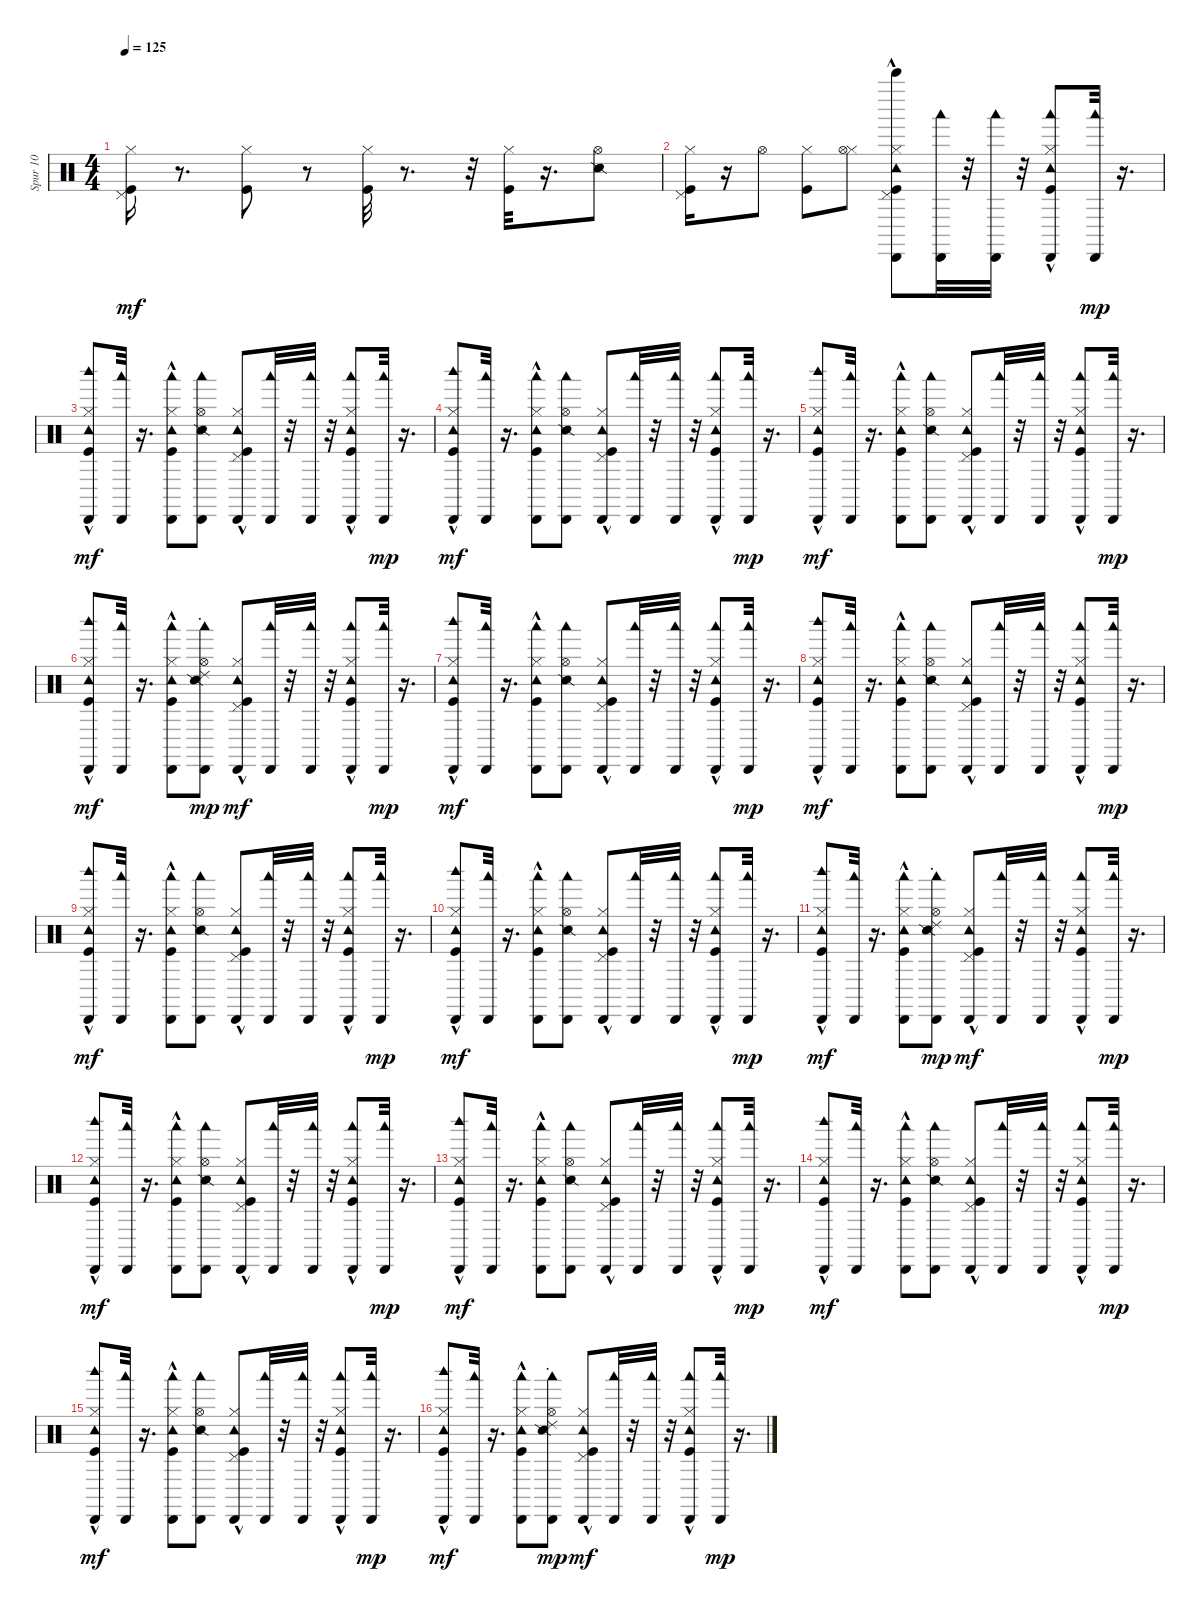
\track ("Spur 10" "Spur 10") {instrument percussion}
\staff {score}
\articulation defaults
\ts (4 4)
\tempo 125
\clef neutral
\ks c
("Pedal Hi-Hat (hit)" "Kick (hit)" "Hi-Hat (closed)").16{dy mf} r.8{d} ("Hi-Hat (closed)" "Kick (hit)").8 r.8 ("Hi-Hat (closed)" "Kick (hit)").32 r.8{d} r.32 ("Hi-Hat (closed)" "Kick (hit)").32 r.16{d} ("Hi-Hat (open)" "Snare (side stick) 2").8 |
("Pedal Hi-Hat (hit)" "Kick (hit)" "Hi-Hat (closed)").16 r.16 "Hi-Hat (open)".8 ("Hi-Hat (closed)" "Kick (hit)").8 ("Hi-Hat (closed)" "Hi-Hat (open)").8 ("Cabasa (hit)" "Tambourine (hit)"{hac} "Bell Tree (hit)"{hac} "Pedal Hi-Hat (hit)" "Kick (hit)" "Hi-Hat (closed)").8 ("Woodblock low (hit)" "Cabasa (hit)").32 r.32 ("Woodblock low (hit)" "Cabasa (hit)").32 r.32 ("Woodblock low (hit)" "Cabasa (hit)" "Tambourine (hit)"{hac} "Hi-Hat (closed)" "Kick (hit)").8 ("Woodblock low (hit)" "Cabasa (hit)").32{dy mp} r.16{d} |
("Woodblock high (hit)" "Cabasa (hit)" "Tambourine (hit)"{hac} "Hi-Hat (closed)" "Kick (hit)").8{dy mf} ("Woodblock low (hit)" "Cabasa (hit)").32 r.16{d} ("Woodblock low (hit)" "Cabasa (hit)" "Tambourine (hit)"{hac} "Hi-Hat (closed)" "Kick (hit)").8 ("Woodblock low (hit)" "Cabasa (hit)" "Hi-Hat (open)" "Snare (side stick) 2").8 ("Cabasa (hit)" "Tambourine (hit)"{hac} "Pedal Hi-Hat (hit)" "Kick (hit)" "Hi-Hat (closed)").8 ("Woodblock low (hit)" "Cabasa (hit)").32 r.32 ("Woodblock low (hit)" "Cabasa (hit)").32 r.32 ("Woodblock low (hit)" "Cabasa (hit)" "Tambourine (hit)"{hac} "Hi-Hat (closed)" "Kick (hit)").8 ("Woodblock low (hit)" "Cabasa (hit)").32{dy mp} r.16{d} |
("Woodblock high (hit)" "Cabasa (hit)" "Tambourine (hit)"{hac} "Hi-Hat (closed)" "Kick (hit)").8{dy mf} ("Woodblock low (hit)" "Cabasa (hit)").32 r.16{d} ("Woodblock low (hit)" "Cabasa (hit)" "Tambourine (hit)"{hac} "Hi-Hat (closed)" "Kick (hit)").8 ("Woodblock low (hit)" "Cabasa (hit)" "Hi-Hat (open)" "Snare (side stick) 2").8 ("Cabasa (hit)" "Tambourine (hit)"{hac} "Pedal Hi-Hat (hit)" "Kick (hit)" "Hi-Hat (closed)").8 ("Woodblock low (hit)" "Cabasa (hit)").32 r.32 ("Woodblock low (hit)" "Cabasa (hit)").32 r.32 ("Woodblock low (hit)" "Cabasa (hit)" "Tambourine (hit)"{hac} "Hi-Hat (closed)" "Kick (hit)").8 ("Woodblock low (hit)" "Cabasa (hit)").32{dy mp} r.16{d} |
("Woodblock high (hit)" "Cabasa (hit)" "Tambourine (hit)"{hac} "Hi-Hat (closed)" "Kick (hit)").8{dy mf} ("Woodblock low (hit)" "Cabasa (hit)").32 r.16{d} ("Woodblock low (hit)" "Cabasa (hit)" "Tambourine (hit)"{hac} "Hi-Hat (closed)" "Kick (hit)").8 ("Woodblock low (hit)" "Cabasa (hit)" "Hi-Hat (open)" "Snare (side stick) 2").8 ("Cabasa (hit)" "Tambourine (hit)"{hac} "Pedal Hi-Hat (hit)" "Kick (hit)" "Hi-Hat (closed)").8 ("Woodblock low (hit)" "Cabasa (hit)").32 r.32 ("Woodblock low (hit)" "Cabasa (hit)").32 r.32 ("Woodblock low (hit)" "Cabasa (hit)" "Tambourine (hit)"{hac} "Hi-Hat (closed)" "Kick (hit)").8 ("Woodblock low (hit)" "Cabasa (hit)").32{dy mp} r.16{d} |
("Woodblock high (hit)" "Cabasa (hit)" "Tambourine (hit)"{hac} "Hi-Hat (closed)" "Kick (hit)").8{dy mf} ("Woodblock low (hit)" "Cabasa (hit)").32 r.16{d} ("Woodblock low (hit)" "Cabasa (hit)" "Tambourine (hit)"{hac} "Hi-Hat (closed)" "Kick (hit)").8 ("Woodblock low (hit)" "Cabasa (hit)" "Hi-Hat (open)" "Snare (side stick) 2" "Ride (choke) 2").8{dy mp} ("Cabasa (hit)" "Tambourine (hit)"{hac} "Pedal Hi-Hat (hit)" "Kick (hit)" "Hi-Hat (closed)").8{dy mf} ("Woodblock low (hit)" "Cabasa (hit)").32 r.32 ("Woodblock low (hit)" "Cabasa (hit)").32 r.32 ("Woodblock low (hit)" "Cabasa (hit)" "Tambourine (hit)"{hac} "Hi-Hat (closed)" "Kick (hit)").8 ("Woodblock low (hit)" "Cabasa (hit)").32{dy mp} r.16{d} |
("Woodblock high (hit)" "Cabasa (hit)" "Tambourine (hit)"{hac} "Hi-Hat (closed)" "Kick (hit)").8{dy mf} ("Woodblock low (hit)" "Cabasa (hit)").32 r.16{d} ("Woodblock low (hit)" "Cabasa (hit)" "Tambourine (hit)"{hac} "Hi-Hat (closed)" "Kick (hit)").8 ("Woodblock low (hit)" "Cabasa (hit)" "Hi-Hat (open)" "Snare (side stick) 2").8 ("Cabasa (hit)" "Tambourine (hit)"{hac} "Pedal Hi-Hat (hit)" "Kick (hit)" "Hi-Hat (closed)").8 ("Woodblock low (hit)" "Cabasa (hit)").32 r.32 ("Woodblock low (hit)" "Cabasa (hit)").32 r.32 ("Woodblock low (hit)" "Cabasa (hit)" "Tambourine (hit)"{hac} "Hi-Hat (closed)" "Kick (hit)").8 ("Woodblock low (hit)" "Cabasa (hit)").32{dy mp} r.16{d} |
("Woodblock high (hit)" "Cabasa (hit)" "Tambourine (hit)"{hac} "Hi-Hat (closed)" "Kick (hit)").8{dy mf} ("Woodblock low (hit)" "Cabasa (hit)").32 r.16{d} ("Woodblock low (hit)" "Cabasa (hit)" "Tambourine (hit)"{hac} "Hi-Hat (closed)" "Kick (hit)").8 ("Woodblock low (hit)" "Cabasa (hit)" "Hi-Hat (open)" "Snare (side stick) 2").8 ("Cabasa (hit)" "Tambourine (hit)"{hac} "Pedal Hi-Hat (hit)" "Kick (hit)" "Hi-Hat (closed)").8 ("Woodblock low (hit)" "Cabasa (hit)").32 r.32 ("Woodblock low (hit)" "Cabasa (hit)").32 r.32 ("Woodblock low (hit)" "Cabasa (hit)" "Tambourine (hit)"{hac} "Hi-Hat (closed)" "Kick (hit)").8 ("Woodblock low (hit)" "Cabasa (hit)").32{dy mp} r.16{d} |
("Woodblock high (hit)" "Cabasa (hit)" "Tambourine (hit)"{hac} "Hi-Hat (closed)" "Kick (hit)").8{dy mf} ("Woodblock low (hit)" "Cabasa (hit)").32 r.16{d} ("Woodblock low (hit)" "Cabasa (hit)" "Tambourine (hit)"{hac} "Hi-Hat (closed)" "Kick (hit)").8 ("Woodblock low (hit)" "Cabasa (hit)" "Hi-Hat (open)" "Snare (side stick) 2").8 ("Cabasa (hit)" "Tambourine (hit)"{hac} "Pedal Hi-Hat (hit)" "Kick (hit)" "Hi-Hat (closed)").8 ("Woodblock low (hit)" "Cabasa (hit)").32 r.32 ("Woodblock low (hit)" "Cabasa (hit)").32 r.32 ("Woodblock low (hit)" "Cabasa (hit)" "Tambourine (hit)"{hac} "Hi-Hat (closed)" "Kick (hit)").8 ("Woodblock low (hit)" "Cabasa (hit)").32{dy mp} r.16{d} |
("Woodblock high (hit)" "Cabasa (hit)" "Tambourine (hit)"{hac} "Hi-Hat (closed)" "Kick (hit)").8{dy mf} ("Woodblock low (hit)" "Cabasa (hit)").32 r.16{d} ("Woodblock low (hit)" "Cabasa (hit)" "Tambourine (hit)"{hac} "Hi-Hat (closed)" "Kick (hit)").8 ("Woodblock low (hit)" "Cabasa (hit)" "Hi-Hat (open)" "Snare (side stick) 2").8 ("Cabasa (hit)" "Tambourine (hit)"{hac} "Pedal Hi-Hat (hit)" "Kick (hit)" "Hi-Hat (closed)").8 ("Woodblock low (hit)" "Cabasa (hit)").32 r.32 ("Woodblock low (hit)" "Cabasa (hit)").32 r.32 ("Woodblock low (hit)" "Cabasa (hit)" "Tambourine (hit)"{hac} "Hi-Hat (closed)" "Kick (hit)").8 ("Woodblock low (hit)" "Cabasa (hit)").32{dy mp} r.16{d} |
("Woodblock high (hit)" "Cabasa (hit)" "Tambourine (hit)"{hac} "Hi-Hat (closed)" "Kick (hit)").8{dy mf} ("Woodblock low (hit)" "Cabasa (hit)").32 r.16{d} ("Woodblock low (hit)" "Cabasa (hit)" "Tambourine (hit)"{hac} "Hi-Hat (closed)" "Kick (hit)").8 ("Woodblock low (hit)" "Cabasa (hit)" "Hi-Hat (open)" "Snare (side stick) 2" "Ride (choke) 2").8{dy mp} ("Cabasa (hit)" "Tambourine (hit)"{hac} "Pedal Hi-Hat (hit)" "Kick (hit)" "Hi-Hat (closed)").8{dy mf} ("Woodblock low (hit)" "Cabasa (hit)").32 r.32 ("Woodblock low (hit)" "Cabasa (hit)").32 r.32 ("Woodblock low (hit)" "Cabasa (hit)" "Tambourine (hit)"{hac} "Hi-Hat (closed)" "Kick (hit)").8 ("Woodblock low (hit)" "Cabasa (hit)").32{dy mp} r.16{d} |
("Woodblock high (hit)" "Cabasa (hit)" "Tambourine (hit)"{hac} "Hi-Hat (closed)" "Kick (hit)").8{dy mf} ("Woodblock low (hit)" "Cabasa (hit)").32 r.16{d} ("Woodblock low (hit)" "Cabasa (hit)" "Tambourine (hit)"{hac} "Hi-Hat (closed)" "Kick (hit)").8 ("Woodblock low (hit)" "Cabasa (hit)" "Hi-Hat (open)" "Snare (side stick) 2").8 ("Cabasa (hit)" "Tambourine (hit)"{hac} "Pedal Hi-Hat (hit)" "Kick (hit)" "Hi-Hat (closed)").8 ("Woodblock low (hit)" "Cabasa (hit)").32 r.32 ("Woodblock low (hit)" "Cabasa (hit)").32 r.32 ("Woodblock low (hit)" "Cabasa (hit)" "Tambourine (hit)"{hac} "Hi-Hat (closed)" "Kick (hit)").8 ("Woodblock low (hit)" "Cabasa (hit)").32{dy mp} r.16{d} |
("Woodblock high (hit)" "Cabasa (hit)" "Tambourine (hit)"{hac} "Hi-Hat (closed)" "Kick (hit)").8{dy mf} ("Woodblock low (hit)" "Cabasa (hit)").32 r.16{d} ("Woodblock low (hit)" "Cabasa (hit)" "Tambourine (hit)"{hac} "Hi-Hat (closed)" "Kick (hit)").8 ("Woodblock low (hit)" "Cabasa (hit)" "Hi-Hat (open)" "Snare (side stick) 2").8 ("Cabasa (hit)" "Tambourine (hit)"{hac} "Pedal Hi-Hat (hit)" "Kick (hit)" "Hi-Hat (closed)").8 ("Woodblock low (hit)" "Cabasa (hit)").32 r.32 ("Woodblock low (hit)" "Cabasa (hit)").32 r.32 ("Woodblock low (hit)" "Cabasa (hit)" "Tambourine (hit)"{hac} "Hi-Hat (closed)" "Kick (hit)").8 ("Woodblock low (hit)" "Cabasa (hit)").32{dy mp} r.16{d} |
("Woodblock high (hit)" "Cabasa (hit)" "Tambourine (hit)"{hac} "Hi-Hat (closed)" "Kick (hit)").8{dy mf} ("Woodblock low (hit)" "Cabasa (hit)").32 r.16{d} ("Woodblock low (hit)" "Cabasa (hit)" "Tambourine (hit)"{hac} "Hi-Hat (closed)" "Kick (hit)").8 ("Woodblock low (hit)" "Cabasa (hit)" "Hi-Hat (open)" "Snare (side stick) 2").8 ("Cabasa (hit)" "Tambourine (hit)"{hac} "Pedal Hi-Hat (hit)" "Kick (hit)" "Hi-Hat (closed)").8 ("Woodblock low (hit)" "Cabasa (hit)").32 r.32 ("Woodblock low (hit)" "Cabasa (hit)").32 r.32 ("Woodblock low (hit)" "Cabasa (hit)" "Tambourine (hit)"{hac} "Hi-Hat (closed)" "Kick (hit)").8 ("Woodblock low (hit)" "Cabasa (hit)").32{dy mp} r.16{d} |
("Woodblock high (hit)" "Cabasa (hit)" "Tambourine (hit)"{hac} "Hi-Hat (closed)" "Kick (hit)").8{dy mf} ("Woodblock low (hit)" "Cabasa (hit)").32 r.16{d} ("Woodblock low (hit)" "Cabasa (hit)" "Tambourine (hit)"{hac} "Hi-Hat (closed)" "Kick (hit)").8 ("Woodblock low (hit)" "Cabasa (hit)" "Hi-Hat (open)" "Snare (side stick) 2").8 ("Cabasa (hit)" "Tambourine (hit)"{hac} "Pedal Hi-Hat (hit)" "Kick (hit)" "Hi-Hat (closed)").8 ("Woodblock low (hit)" "Cabasa (hit)").32 r.32 ("Woodblock low (hit)" "Cabasa (hit)").32 r.32 ("Woodblock low (hit)" "Cabasa (hit)" "Tambourine (hit)"{hac} "Hi-Hat (closed)" "Kick (hit)").8 ("Woodblock low (hit)" "Cabasa (hit)").32{dy mp} r.16{d} |
("Woodblock high (hit)" "Cabasa (hit)" "Tambourine (hit)"{hac} "Hi-Hat (closed)" "Kick (hit)").8{dy mf} ("Woodblock low (hit)" "Cabasa (hit)").32 r.16{d} ("Woodblock low (hit)" "Cabasa (hit)" "Tambourine (hit)"{hac} "Hi-Hat (closed)" "Kick (hit)").8 ("Woodblock low (hit)" "Cabasa (hit)" "Hi-Hat (open)" "Snare (side stick) 2" "Ride (choke) 2").8{dy mp} ("Cabasa (hit)" "Tambourine (hit)"{hac} "Pedal Hi-Hat (hit)" "Kick (hit)" "Hi-Hat (closed)").8{dy mf} ("Woodblock low (hit)" "Cabasa (hit)").32 r.32 ("Woodblock low (hit)" "Cabasa (hit)").32 r.32 ("Woodblock low (hit)" "Cabasa (hit)" "Tambourine (hit)"{hac} "Hi-Hat (closed)" "Kick (hit)").8 ("Woodblock low (hit)" "Cabasa (hit)").32{dy mp} r.16{d}
